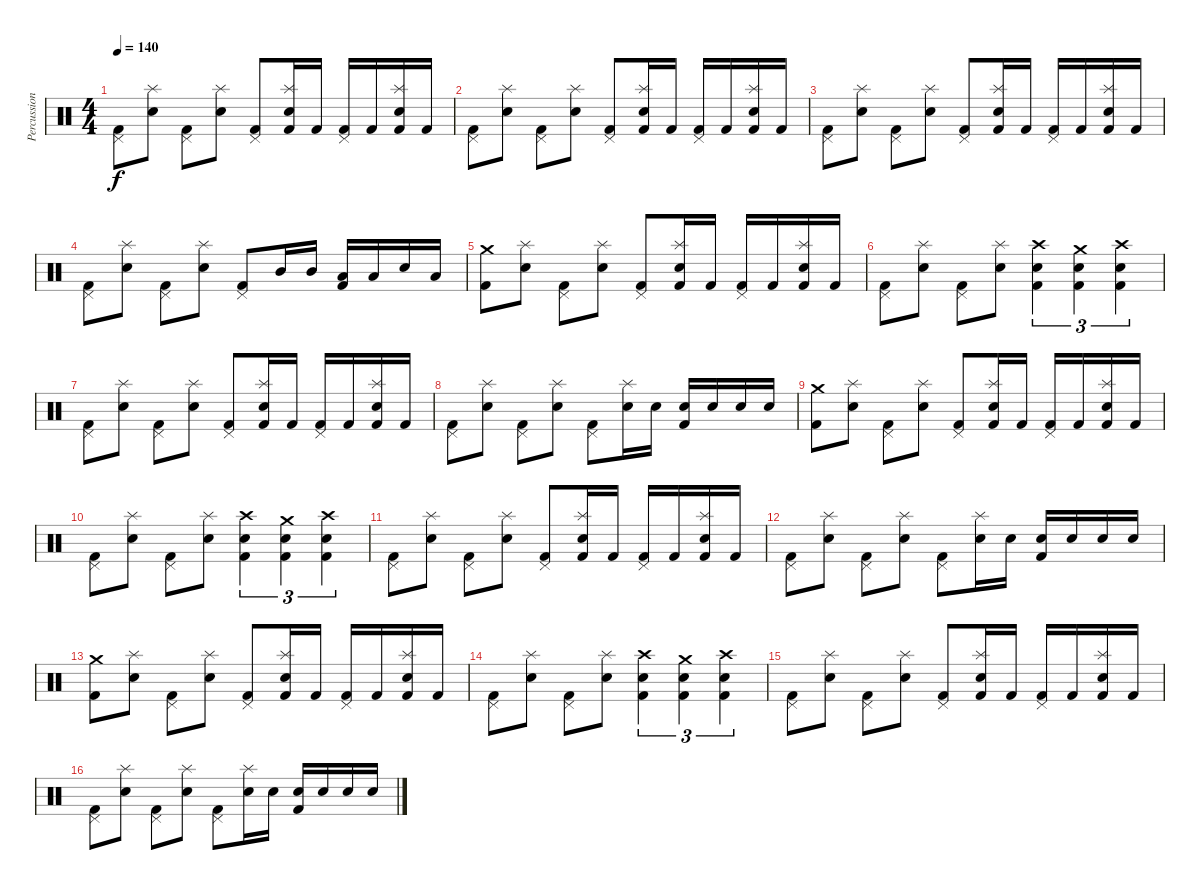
\track ("Percussion" "Percussion") {instrument percussion}
\staff {score}
\articulation defaults
\ts (4 4)
\tempo 140
\clef neutral
\ks c
("Pedal Hi-Hat (hit)" "Kick (hit) 2").8{dy f} ("Splash (hit)" "Snare (hit) 2").8 ("Pedal Hi-Hat (hit)" "Kick (hit) 2").8 ("Splash (hit)" "Snare (hit) 2").8 ("Pedal Hi-Hat (hit)" "Kick (hit) 2").8 ("Splash (hit)" "Snare (hit) 2" "Kick (hit) 2").16 "Kick (hit) 2".16 ("Pedal Hi-Hat (hit)" "Kick (hit) 2").16 "Kick (hit) 2".16 ("Splash (hit)" "Snare (hit) 2" "Kick (hit) 2").16 "Kick (hit) 2".16 |
("Pedal Hi-Hat (hit)" "Kick (hit) 2").8 ("Splash (hit)" "Snare (hit) 2").8 ("Pedal Hi-Hat (hit)" "Kick (hit) 2").8 ("Splash (hit)" "Snare (hit) 2").8 ("Pedal Hi-Hat (hit)" "Kick (hit) 2").8 ("Splash (hit)" "Snare (hit) 2" "Kick (hit) 2").16 "Kick (hit) 2".16 ("Pedal Hi-Hat (hit)" "Kick (hit) 2").16 "Kick (hit) 2".16 ("Splash (hit)" "Snare (hit) 2" "Kick (hit) 2").16 "Kick (hit) 2".16 |
("Pedal Hi-Hat (hit)" "Kick (hit) 2").8 ("Splash (hit)" "Snare (hit) 2").8 ("Pedal Hi-Hat (hit)" "Kick (hit) 2").8 ("Splash (hit)" "Snare (hit) 2").8 ("Pedal Hi-Hat (hit)" "Kick (hit) 2").8 ("Splash (hit)" "Snare (hit) 2" "Kick (hit) 2").16 "Kick (hit) 2".16 ("Pedal Hi-Hat (hit)" "Kick (hit) 2").16 "Kick (hit) 2".16 ("Splash (hit)" "Snare (hit) 2" "Kick (hit) 2").16 "Kick (hit) 2".16 |
("Pedal Hi-Hat (hit)" "Kick (hit) 2").8 ("Splash (hit)" "Snare (hit) 2").8 ("Pedal Hi-Hat (hit)" "Kick (hit) 2").8 ("Splash (hit)" "Snare (hit) 2").8 ("Pedal Hi-Hat (hit)" "Kick (hit) 2").8 "Mid Tom (hit)".16 "Mid Tom (hit)".16 ("Low Tom (hit)" "Kick (hit) 2").16 "Low Tom (hit)".16 "Snare (hit) 2".16 "Low Tom (hit)".16 |
("Crash medium (hit)" "Kick (hit) 2").8 ("Splash (hit)" "Snare (hit) 2").8 ("Pedal Hi-Hat (hit)" "Kick (hit) 2").8 ("Splash (hit)" "Snare (hit) 2").8 ("Pedal Hi-Hat (hit)" "Kick (hit) 2").8 ("Splash (hit)" "Snare (hit) 2" "Kick (hit) 2").16 "Kick (hit) 2".16 ("Pedal Hi-Hat (hit)" "Kick (hit) 2").16 "Kick (hit) 2".16 ("Splash (hit)" "Snare (hit) 2" "Kick (hit) 2").16 "Kick (hit) 2".16 |
("Pedal Hi-Hat (hit)" "Kick (hit) 2").8 ("Splash (hit)" "Snare (hit) 2").8 ("Pedal Hi-Hat (hit)" "Kick (hit) 2").8 ("Splash (hit)" "Snare (hit) 2").8 ("Crash high (hit)" "Snare (hit) 2" "Kick (hit) 2").4{tu (3 2)} ("Crash medium (hit)" "Snare (hit) 2" "Kick (hit) 2").4{tu (3 2)} ("Crash high (hit)" "Snare (hit) 2" "Kick (hit) 2").4{tu (3 2)} |
("Pedal Hi-Hat (hit)" "Kick (hit) 2").8 ("Splash (hit)" "Snare (hit) 2").8 ("Pedal Hi-Hat (hit)" "Kick (hit) 2").8 ("Splash (hit)" "Snare (hit) 2").8 ("Pedal Hi-Hat (hit)" "Kick (hit) 2").8 ("Splash (hit)" "Snare (hit) 2" "Kick (hit) 2").16 "Kick (hit) 2".16 ("Pedal Hi-Hat (hit)" "Kick (hit) 2").16 "Kick (hit) 2".16 ("Splash (hit)" "Snare (hit) 2" "Kick (hit) 2").16 "Kick (hit) 2".16 |
("Pedal Hi-Hat (hit)" "Kick (hit) 2").8 ("Splash (hit)" "Snare (hit) 2").8 ("Pedal Hi-Hat (hit)" "Kick (hit) 2").8 ("Splash (hit)" "Snare (hit) 2").8 ("Pedal Hi-Hat (hit)" "Kick (hit) 2").8 ("Splash (hit)" "Snare (hit) 2").16 "Snare (hit) 2".16 ("Snare (hit) 2" "Kick (hit) 2").16 "Snare (hit) 2".16 "Snare (hit) 2".16 "Snare (hit) 2".16 |
("Crash medium (hit)" "Kick (hit) 2").8 ("Splash (hit)" "Snare (hit) 2").8 ("Pedal Hi-Hat (hit)" "Kick (hit) 2").8 ("Splash (hit)" "Snare (hit) 2").8 ("Pedal Hi-Hat (hit)" "Kick (hit) 2").8 ("Splash (hit)" "Snare (hit) 2" "Kick (hit) 2").16 "Kick (hit) 2".16 ("Pedal Hi-Hat (hit)" "Kick (hit) 2").16 "Kick (hit) 2".16 ("Splash (hit)" "Snare (hit) 2" "Kick (hit) 2").16 "Kick (hit) 2".16 |
("Pedal Hi-Hat (hit)" "Kick (hit) 2").8 ("Splash (hit)" "Snare (hit) 2").8 ("Pedal Hi-Hat (hit)" "Kick (hit) 2").8 ("Splash (hit)" "Snare (hit) 2").8 ("Crash high (hit)" "Snare (hit) 2" "Kick (hit) 2").4{tu (3 2)} ("Crash medium (hit)" "Snare (hit) 2" "Kick (hit) 2").4{tu (3 2)} ("Crash high (hit)" "Snare (hit) 2" "Kick (hit) 2").4{tu (3 2)} |
("Pedal Hi-Hat (hit)" "Kick (hit) 2").8 ("Splash (hit)" "Snare (hit) 2").8 ("Pedal Hi-Hat (hit)" "Kick (hit) 2").8 ("Splash (hit)" "Snare (hit) 2").8 ("Pedal Hi-Hat (hit)" "Kick (hit) 2").8 ("Splash (hit)" "Snare (hit) 2" "Kick (hit) 2").16 "Kick (hit) 2".16 ("Pedal Hi-Hat (hit)" "Kick (hit) 2").16 "Kick (hit) 2".16 ("Splash (hit)" "Snare (hit) 2" "Kick (hit) 2").16 "Kick (hit) 2".16 |
("Pedal Hi-Hat (hit)" "Kick (hit) 2").8 ("Splash (hit)" "Snare (hit) 2").8 ("Pedal Hi-Hat (hit)" "Kick (hit) 2").8 ("Splash (hit)" "Snare (hit) 2").8 ("Pedal Hi-Hat (hit)" "Kick (hit) 2").8 ("Splash (hit)" "Snare (hit) 2").16 "Snare (hit) 2".16 ("Snare (hit) 2" "Kick (hit) 2").16 "Snare (hit) 2".16 "Snare (hit) 2".16 "Snare (hit) 2".16 |
("Crash medium (hit)" "Kick (hit) 2").8 ("Splash (hit)" "Snare (hit) 2").8 ("Pedal Hi-Hat (hit)" "Kick (hit) 2").8 ("Splash (hit)" "Snare (hit) 2").8 ("Pedal Hi-Hat (hit)" "Kick (hit) 2").8 ("Splash (hit)" "Snare (hit) 2" "Kick (hit) 2").16 "Kick (hit) 2".16 ("Pedal Hi-Hat (hit)" "Kick (hit) 2").16 "Kick (hit) 2".16 ("Splash (hit)" "Snare (hit) 2" "Kick (hit) 2").16 "Kick (hit) 2".16 |
("Pedal Hi-Hat (hit)" "Kick (hit) 2").8 ("Splash (hit)" "Snare (hit) 2").8 ("Pedal Hi-Hat (hit)" "Kick (hit) 2").8 ("Splash (hit)" "Snare (hit) 2").8 ("Crash high (hit)" "Snare (hit) 2" "Kick (hit) 2").4{tu (3 2)} ("Crash medium (hit)" "Snare (hit) 2" "Kick (hit) 2").4{tu (3 2)} ("Crash high (hit)" "Snare (hit) 2" "Kick (hit) 2").4{tu (3 2)} |
("Pedal Hi-Hat (hit)" "Kick (hit) 2").8 ("Splash (hit)" "Snare (hit) 2").8 ("Pedal Hi-Hat (hit)" "Kick (hit) 2").8 ("Splash (hit)" "Snare (hit) 2").8 ("Pedal Hi-Hat (hit)" "Kick (hit) 2").8 ("Splash (hit)" "Snare (hit) 2" "Kick (hit) 2").16 "Kick (hit) 2".16 ("Pedal Hi-Hat (hit)" "Kick (hit) 2").16 "Kick (hit) 2".16 ("Splash (hit)" "Snare (hit) 2" "Kick (hit) 2").16 "Kick (hit) 2".16 |
("Pedal Hi-Hat (hit)" "Kick (hit) 2").8 ("Splash (hit)" "Snare (hit) 2").8 ("Pedal Hi-Hat (hit)" "Kick (hit) 2").8 ("Splash (hit)" "Snare (hit) 2").8 ("Pedal Hi-Hat (hit)" "Kick (hit) 2").8 ("Splash (hit)" "Snare (hit) 2").16 "Snare (hit) 2".16 ("Snare (hit) 2" "Kick (hit) 2").16 "Snare (hit) 2".16 "Snare (hit) 2".16 "Snare (hit) 2".16
